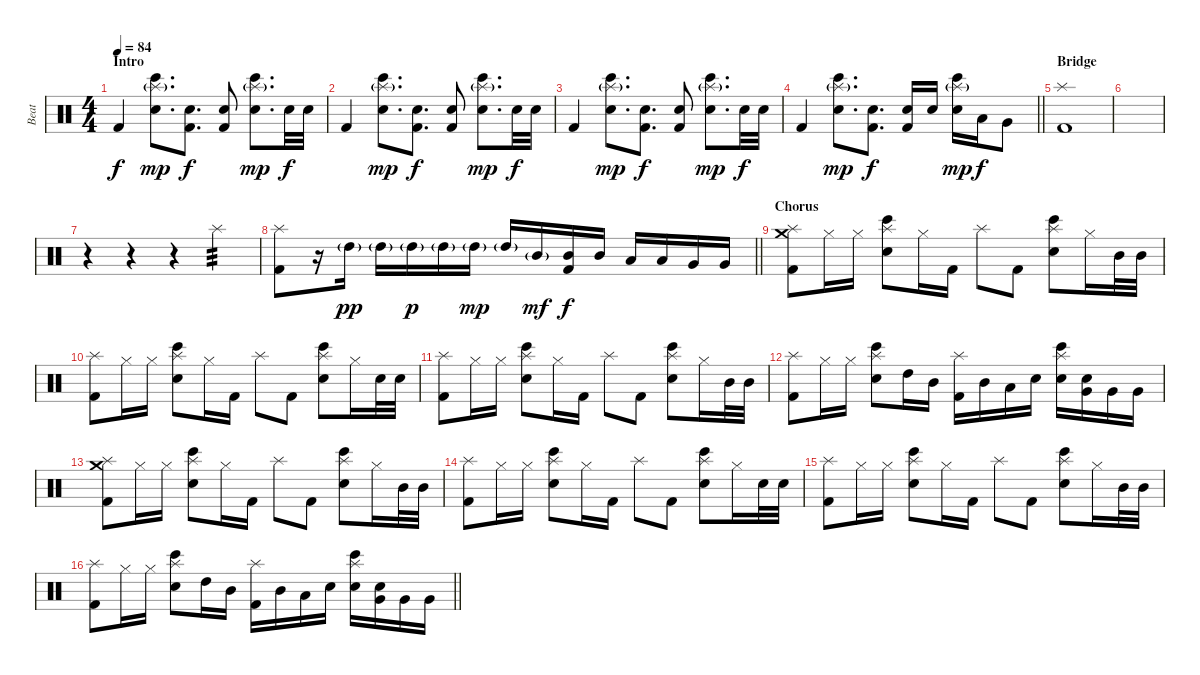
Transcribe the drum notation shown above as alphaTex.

\track ("Beat" "Beat") {instrument percussion}
\staff {score}
\articulation defaults
\ts (4 4)
\section ("" "Intro")
\tempo 84
\clef neutral
\ks c "Kick (hit) 2".4{dy f}
("Splash (hit)"{g} "Snare (hit) 2" "Bongo High (hit)").8{d dy mp} ("Snare (hit) 2" "Kick (hit) 2").8{d dy f} ("Snare (hit) 2" "Kick (hit) 2").8 ("Splash (hit)"{g} "Snare (hit) 2" "Bongo High (hit)").8{d dy mp} "Snare (hit) 2".32{dy f} "Snare (hit) 2".32 |
"Kick (hit) 2".4 ("Splash (hit)"{g} "Snare (hit) 2" "Bongo High (hit)").8{d dy mp} ("Snare (hit) 2" "Kick (hit) 2").8{d dy f} ("Snare (hit) 2" "Kick (hit) 2").8 ("Splash (hit)"{g} "Snare (hit) 2" "Bongo High (hit)").8{d dy mp} "Snare (hit) 2".32{dy f} "Snare (hit) 2".32 |
"Kick (hit) 2".4 ("Splash (hit)"{g} "Snare (hit) 2" "Bongo High (hit)").8{d dy mp} ("Snare (hit) 2" "Kick (hit) 2").8{d dy f} ("Snare (hit) 2" "Kick (hit) 2").8 ("Splash (hit)"{g} "Snare (hit) 2" "Bongo High (hit)").8{d dy mp} "Snare (hit) 2".32{dy f} "Snare (hit) 2".32 |
\barLineRight lightlight "Kick (hit) 2".4
("Splash (hit)"{g} "Snare (hit) 2" "Bongo High (hit)").8{d dy mp} ("Snare (hit) 2" "Kick (hit) 2").8{d dy f} ("Snare (hit) 2" "Kick (hit) 2").16 "Snare (hit) 2".16 ("Splash (hit)"{g} "Snare (hit) 2" "Bongo High (hit)").16{dy mp} "Low Tom (hit)".16{dy f} "Very Low Tom (hit)".8 |
\section ("" "Bridge")
("Splash (hit)" "Kick (hit) 2").1 |
|
r.4 r.4 r.4 "Splash (hit)".4{tp 3 volume 13} |
\barLineRight lightlight
("Splash (hit)" "Kick (hit) 2").8 r.16 "High Tom (hit)"{g}.16{dy pp} "High Tom (hit)"{g}.16 "High Tom (hit)"{g}.16{dy p} "High Tom (hit)"{g}.16 "High Tom (hit)"{g}.16{dy mp} "High Tom (hit)"{g}.16 "Mid Tom (hit)"{g}.16{dy mf} ("Mid Tom (hit)" "Kick (hit) 2").16{dy f} "Mid Tom (hit)".16 "Low Tom (hit)".16 "Low Tom (hit)".16 "Very Low Tom (hit)".16 "Very Low Tom (hit)".16 |
\section ("" "Chorus")
("Crash medium (hit)" "Splash (hit)" "Kick (hit) 2").8 "Hi-Hat (closed)".16 "Hi-Hat (closed)".16 ("Splash (hit)" "Snare (hit) 2" "Bongo High (hit)").8 "Hi-Hat (closed)".16 "Kick (hit) 2".16 "Splash (hit)".8 "Kick (hit) 2".8 ("Splash (hit)" "Snare (hit) 2" "Bongo High (hit)").8 "Hi-Hat (closed)".16 "Mid Tom (hit)".32 "Mid Tom (hit)".32 |
("Splash (hit)" "Kick (hit) 2").8 "Hi-Hat (closed)".16 "Hi-Hat (closed)".16 ("Splash (hit)" "Snare (hit) 2" "Bongo High (hit)").8 "Hi-Hat (closed)".16 "Kick (hit) 2".16 "Splash (hit)".8 "Kick (hit) 2".8 ("Splash (hit)" "Snare (hit) 2" "Bongo High (hit)").8 "Hi-Hat (closed)".16 "Snare (hit) 2".32 "Snare (hit) 2".32 |
("Splash (hit)" "Kick (hit) 2").8 "Hi-Hat (closed)".16 "Hi-Hat (closed)".16 ("Splash (hit)" "Snare (hit) 2" "Bongo High (hit)").8 "Hi-Hat (closed)".16 "Kick (hit) 2".16 "Splash (hit)".8 "Kick (hit) 2".8 ("Splash (hit)" "Snare (hit) 2" "Bongo High (hit)").8 "Hi-Hat (closed)".16 "Mid Tom (hit)".32 "Mid Tom (hit)".32 |
("Splash (hit)" "Kick (hit) 2").8 "Hi-Hat (closed)".16 "Hi-Hat (closed)".16 ("Splash (hit)" "Snare (hit) 2" "Bongo High (hit)").8 "High Tom (hit)".16 "Mid Tom (hit)".16 ("Splash (hit)" "Kick (hit) 2").16 "Mid Tom (hit)".16 "Low Tom (hit)".16 "Snare (hit) 2".16 ("Splash (hit)" "Snare (hit) 2" "Bongo High (hit)").16 ("Snare (hit) 2" "Very Low Tom (hit)").16 "Very Low Tom (hit)".16 "Very Low Tom (hit)".16 |
("Crash medium (hit)" "Splash (hit)" "Kick (hit) 2").8 "Hi-Hat (closed)".16 "Hi-Hat (closed)".16 ("Splash (hit)" "Snare (hit) 2" "Bongo High (hit)").8 "Hi-Hat (closed)".16 "Kick (hit) 2".16 "Splash (hit)".8 "Kick (hit) 2".8 ("Splash (hit)" "Snare (hit) 2" "Bongo High (hit)").8 "Hi-Hat (closed)".16 "Mid Tom (hit)".32 "Mid Tom (hit)".32 |
("Splash (hit)" "Kick (hit) 2").8 "Hi-Hat (closed)".16 "Hi-Hat (closed)".16 ("Splash (hit)" "Snare (hit) 2" "Bongo High (hit)").8 "Hi-Hat (closed)".16 "Kick (hit) 2".16 "Splash (hit)".8 "Kick (hit) 2".8 ("Splash (hit)" "Snare (hit) 2" "Bongo High (hit)").8 "Hi-Hat (closed)".16 "Snare (hit) 2".32 "Snare (hit) 2".32 |
("Splash (hit)" "Kick (hit) 2").8 "Hi-Hat (closed)".16 "Hi-Hat (closed)".16 ("Splash (hit)" "Snare (hit) 2" "Bongo High (hit)").8 "Hi-Hat (closed)".16 "Kick (hit) 2".16 "Splash (hit)".8 "Kick (hit) 2".8 ("Splash (hit)" "Snare (hit) 2" "Bongo High (hit)").8 "Hi-Hat (closed)".16 "Mid Tom (hit)".32 "Mid Tom (hit)".32 |
\barLineRight lightlight
("Splash (hit)" "Kick (hit) 2").8 "Hi-Hat (closed)".16 "Hi-Hat (closed)".16 ("Splash (hit)" "Snare (hit) 2" "Bongo High (hit)").8 "High Tom (hit)".16 "Mid Tom (hit)".16 ("Splash (hit)" "Kick (hit) 2").16 "Mid Tom (hit)".16 "Low Tom (hit)".16 "Snare (hit) 2".16 ("Splash (hit)" "Snare (hit) 2" "Bongo High (hit)").16 ("Snare (hit) 2" "Very Low Tom (hit)").16 "Very Low Tom (hit)".16 "Very Low Tom (hit)".16
